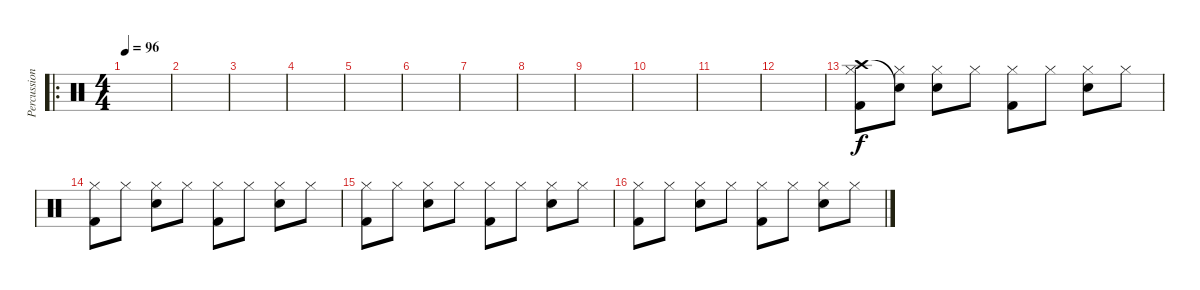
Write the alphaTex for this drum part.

\track ("Percussion" "Percussion") {instrument percussion}
\staff {score}
\articulation defaults
\ro
\ts (4 4)
\tempo 96
\clef neutral
\ks c
|
|
|
|
|
|
|
|
|
|
|
|
("Crash high (hit)" "Hi-Hat (closed)" "Kick (hit) 2").8 ("Snare (hit)"{t} "Hi-Hat (closed)").8 ("Hi-Hat (closed)" "Snare (hit) 2").8 "Hi-Hat (closed)".8 ("Hi-Hat (closed)" "Kick (hit) 2").8 "Hi-Hat (closed)".8 ("Hi-Hat (closed)" "Snare (hit) 2").8 "Hi-Hat (closed)".8 |
("Hi-Hat (closed)" "Kick (hit) 2").8 "Hi-Hat (closed)".8 ("Hi-Hat (closed)" "Snare (hit) 2").8 "Hi-Hat (closed)".8 ("Hi-Hat (closed)" "Kick (hit) 2").8 "Hi-Hat (closed)".8 ("Hi-Hat (closed)" "Snare (hit) 2").8 "Hi-Hat (closed)".8 |
("Hi-Hat (closed)" "Kick (hit) 2").8 "Hi-Hat (closed)".8 ("Hi-Hat (closed)" "Snare (hit) 2").8 "Hi-Hat (closed)".8 ("Hi-Hat (closed)" "Kick (hit) 2").8 "Hi-Hat (closed)".8 ("Hi-Hat (closed)" "Snare (hit) 2").8 "Hi-Hat (closed)".8 |
("Hi-Hat (closed)" "Kick (hit) 2").8 "Hi-Hat (closed)".8 ("Hi-Hat (closed)" "Snare (hit) 2").8 "Hi-Hat (closed)".8 ("Hi-Hat (closed)" "Kick (hit) 2").8 "Hi-Hat (closed)".8 ("Hi-Hat (closed)" "Snare (hit) 2").8 "Hi-Hat (closed)".8
